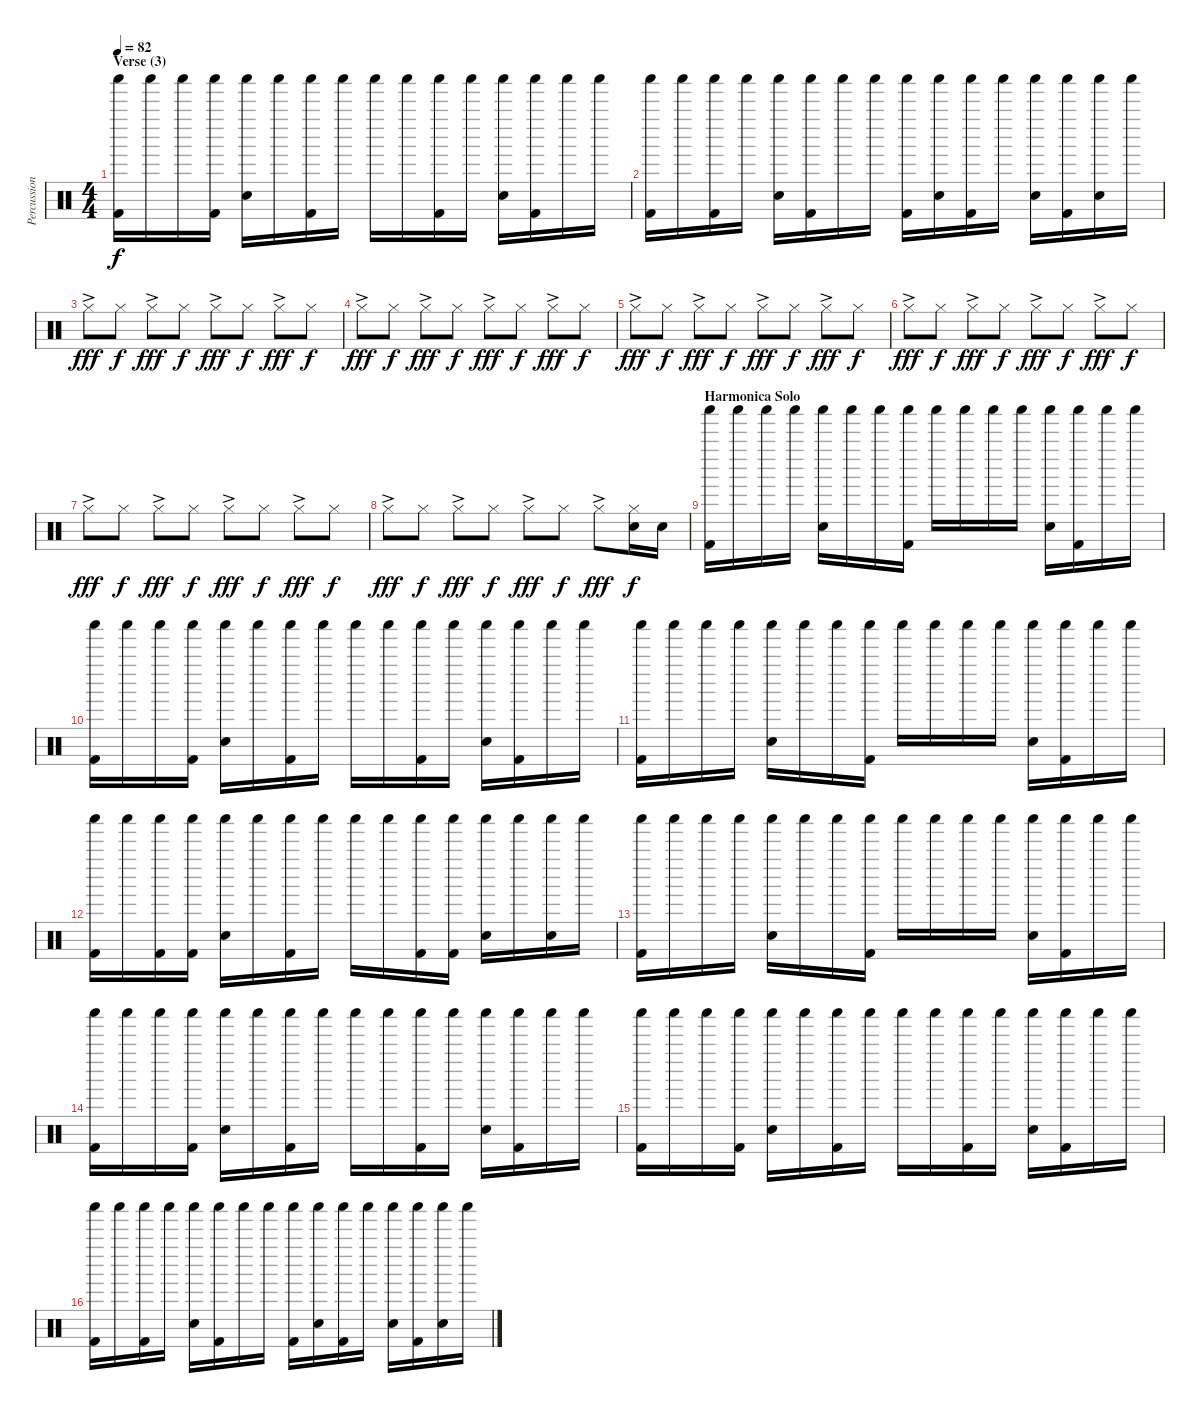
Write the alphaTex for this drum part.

\track ("Percussion" "Percussion") {instrument percussion}
\staff {score}
\articulation defaults
\ts (4 4)
\section ("" "Verse (3)")
\tempo 82
\clef neutral
\ks c
("Shaker (hit)" "Kick (hit) 2").16{dy f} "Shaker (hit)".16 "Shaker (hit)".16 ("Shaker (hit)" "Kick (hit) 2").16 ("Shaker (hit)" "Snare (hit) 2").16 "Shaker (hit)".16 ("Shaker (hit)" "Kick (hit) 2").16 "Shaker (hit)".16 "Shaker (hit)".16 "Shaker (hit)".16 ("Shaker (hit)" "Kick (hit) 2").16 "Shaker (hit)".16 ("Shaker (hit)" "Snare (hit) 2").16 ("Shaker (hit)" "Kick (hit) 2").16 "Shaker (hit)".16 "Shaker (hit)".16 |
("Shaker (hit)" "Kick (hit) 2").16 "Shaker (hit)".16 ("Shaker (hit)" "Kick (hit) 2").16 "Shaker (hit)".16 ("Shaker (hit)" "Snare (hit) 2").16 ("Shaker (hit)" "Kick (hit) 2").16 "Shaker (hit)".16 "Shaker (hit)".16 ("Shaker (hit)" "Kick (hit) 2").16 ("Shaker (hit)" "Snare (hit) 2").16 ("Shaker (hit)" "Kick (hit) 2").16 "Shaker (hit)".16 ("Shaker (hit)" "Snare (hit) 2").16 ("Shaker (hit)" "Kick (hit) 2").16 ("Shaker (hit)" "Snare (hit) 2").16 "Shaker (hit)".16 |
"Hi-Hat (closed)"{ac}.8{dy fff} "Hi-Hat (closed)".8{dy f} "Hi-Hat (closed)"{ac}.8{dy fff} "Hi-Hat (closed)".8{dy f} "Hi-Hat (closed)"{ac}.8{dy fff} "Hi-Hat (closed)".8{dy f} "Hi-Hat (closed)"{ac}.8{dy fff} "Hi-Hat (closed)".8{dy f} |
"Hi-Hat (closed)"{ac}.8{dy fff} "Hi-Hat (closed)".8{dy f} "Hi-Hat (closed)"{ac}.8{dy fff} "Hi-Hat (closed)".8{dy f} "Hi-Hat (closed)"{ac}.8{dy fff} "Hi-Hat (closed)".8{dy f} "Hi-Hat (closed)"{ac}.8{dy fff} "Hi-Hat (closed)".8{dy f} |
"Hi-Hat (closed)"{ac}.8{dy fff} "Hi-Hat (closed)".8{dy f} "Hi-Hat (closed)"{ac}.8{dy fff} "Hi-Hat (closed)".8{dy f} "Hi-Hat (closed)"{ac}.8{dy fff} "Hi-Hat (closed)".8{dy f} "Hi-Hat (closed)"{ac}.8{dy fff} "Hi-Hat (closed)".8{dy f} |
"Hi-Hat (closed)"{ac}.8{dy fff} "Hi-Hat (closed)".8{dy f} "Hi-Hat (closed)"{ac}.8{dy fff} "Hi-Hat (closed)".8{dy f} "Hi-Hat (closed)"{ac}.8{dy fff} "Hi-Hat (closed)".8{dy f} "Hi-Hat (closed)"{ac}.8{dy fff} "Hi-Hat (closed)".8{dy f} |
"Hi-Hat (closed)"{ac}.8{dy fff} "Hi-Hat (closed)".8{dy f} "Hi-Hat (closed)"{ac}.8{dy fff} "Hi-Hat (closed)".8{dy f} "Hi-Hat (closed)"{ac}.8{dy fff} "Hi-Hat (closed)".8{dy f} "Hi-Hat (closed)"{ac}.8{dy fff} "Hi-Hat (closed)".8{dy f} |
"Hi-Hat (closed)"{ac}.8{dy fff} "Hi-Hat (closed)".8{dy f} "Hi-Hat (closed)"{ac}.8{dy fff} "Hi-Hat (closed)".8{dy f} "Hi-Hat (closed)"{ac}.8{dy fff} "Hi-Hat (closed)".8{dy f} "Hi-Hat (closed)"{ac}.8{dy fff} ("Hi-Hat (closed)" "Snare (hit) 2").16{dy f} "Snare (hit) 2".16 |
\section ("" "Harmonica Solo")
("Shaker (hit)" "Kick (hit) 2").16 "Shaker (hit)".16 "Shaker (hit)".16 "Shaker (hit)".16 ("Shaker (hit)" "Snare (hit) 2").16 "Shaker (hit)".16 "Shaker (hit)".16 ("Shaker (hit)" "Kick (hit) 2").16 "Shaker (hit)".16 "Shaker (hit)".16 "Shaker (hit)".16 "Shaker (hit)".16 ("Shaker (hit)" "Snare (hit) 2").16 ("Shaker (hit)" "Kick (hit) 2").16 "Shaker (hit)".16 "Shaker (hit)".16 |
("Shaker (hit)" "Kick (hit) 2").16 "Shaker (hit)".16 "Shaker (hit)".16 ("Shaker (hit)" "Kick (hit) 2").16 ("Shaker (hit)" "Snare (hit) 2").16 "Shaker (hit)".16 ("Shaker (hit)" "Kick (hit) 2").16 "Shaker (hit)".16 "Shaker (hit)".16 "Shaker (hit)".16 ("Shaker (hit)" "Kick (hit) 2").16 "Shaker (hit)".16 ("Shaker (hit)" "Snare (hit) 2").16 ("Shaker (hit)" "Kick (hit) 2").16 "Shaker (hit)".16 "Shaker (hit)".16 |
("Shaker (hit)" "Kick (hit) 2").16 "Shaker (hit)".16 "Shaker (hit)".16 "Shaker (hit)".16 ("Shaker (hit)" "Snare (hit) 2").16 "Shaker (hit)".16 "Shaker (hit)".16 ("Shaker (hit)" "Kick (hit) 2").16 "Shaker (hit)".16 "Shaker (hit)".16 "Shaker (hit)".16 "Shaker (hit)".16 ("Shaker (hit)" "Snare (hit) 2").16 ("Shaker (hit)" "Kick (hit) 2").16 "Shaker (hit)".16 "Shaker (hit)".16 |
("Shaker (hit)" "Kick (hit) 2").16 "Shaker (hit)".16 ("Shaker (hit)" "Kick (hit) 2").16 ("Shaker (hit)" "Kick (hit) 2").16 ("Shaker (hit)" "Snare (hit) 2").16 "Shaker (hit)".16 ("Shaker (hit)" "Kick (hit) 2").16 "Shaker (hit)".16 "Shaker (hit)".16 "Shaker (hit)".16 ("Shaker (hit)" "Kick (hit) 2").16 ("Shaker (hit)" "Kick (hit) 2").16 ("Shaker (hit)" "Snare (hit) 2").16 "Shaker (hit)".16 ("Shaker (hit)" "Snare (hit) 2").16 "Shaker (hit)".16 |
("Shaker (hit)" "Kick (hit) 2").16 "Shaker (hit)".16 "Shaker (hit)".16 "Shaker (hit)".16 ("Shaker (hit)" "Snare (hit) 2").16 "Shaker (hit)".16 "Shaker (hit)".16 ("Shaker (hit)" "Kick (hit) 2").16 "Shaker (hit)".16 "Shaker (hit)".16 "Shaker (hit)".16 "Shaker (hit)".16 ("Shaker (hit)" "Snare (hit) 2").16 ("Shaker (hit)" "Kick (hit) 2").16 "Shaker (hit)".16 "Shaker (hit)".16 |
("Shaker (hit)" "Kick (hit) 2").16 "Shaker (hit)".16 "Shaker (hit)".16 ("Shaker (hit)" "Kick (hit) 2").16 ("Shaker (hit)" "Snare (hit) 2").16 "Shaker (hit)".16 ("Shaker (hit)" "Kick (hit) 2").16 "Shaker (hit)".16 "Shaker (hit)".16 "Shaker (hit)".16 ("Shaker (hit)" "Kick (hit) 2").16 "Shaker (hit)".16 ("Shaker (hit)" "Snare (hit) 2").16 ("Shaker (hit)" "Kick (hit) 2").16 "Shaker (hit)".16 "Shaker (hit)".16 |
("Shaker (hit)" "Kick (hit) 2").16 "Shaker (hit)".16 "Shaker (hit)".16 ("Shaker (hit)" "Kick (hit) 2").16 ("Shaker (hit)" "Snare (hit) 2").16 "Shaker (hit)".16 ("Shaker (hit)" "Kick (hit) 2").16 "Shaker (hit)".16 "Shaker (hit)".16 "Shaker (hit)".16 ("Shaker (hit)" "Kick (hit) 2").16 "Shaker (hit)".16 ("Shaker (hit)" "Snare (hit) 2").16 ("Shaker (hit)" "Kick (hit) 2").16 "Shaker (hit)".16 "Shaker (hit)".16 |
("Shaker (hit)" "Kick (hit) 2").16 "Shaker (hit)".16 ("Shaker (hit)" "Kick (hit) 2").16 "Shaker (hit)".16 ("Shaker (hit)" "Snare (hit) 2").16 ("Shaker (hit)" "Kick (hit) 2").16 "Shaker (hit)".16 "Shaker (hit)".16 ("Shaker (hit)" "Kick (hit) 2").16 ("Shaker (hit)" "Snare (hit) 2").16 ("Shaker (hit)" "Kick (hit) 2").16 "Shaker (hit)".16 ("Shaker (hit)" "Snare (hit) 2").16 ("Shaker (hit)" "Kick (hit) 2").16 ("Shaker (hit)" "Snare (hit) 2").16 "Shaker (hit)".16
